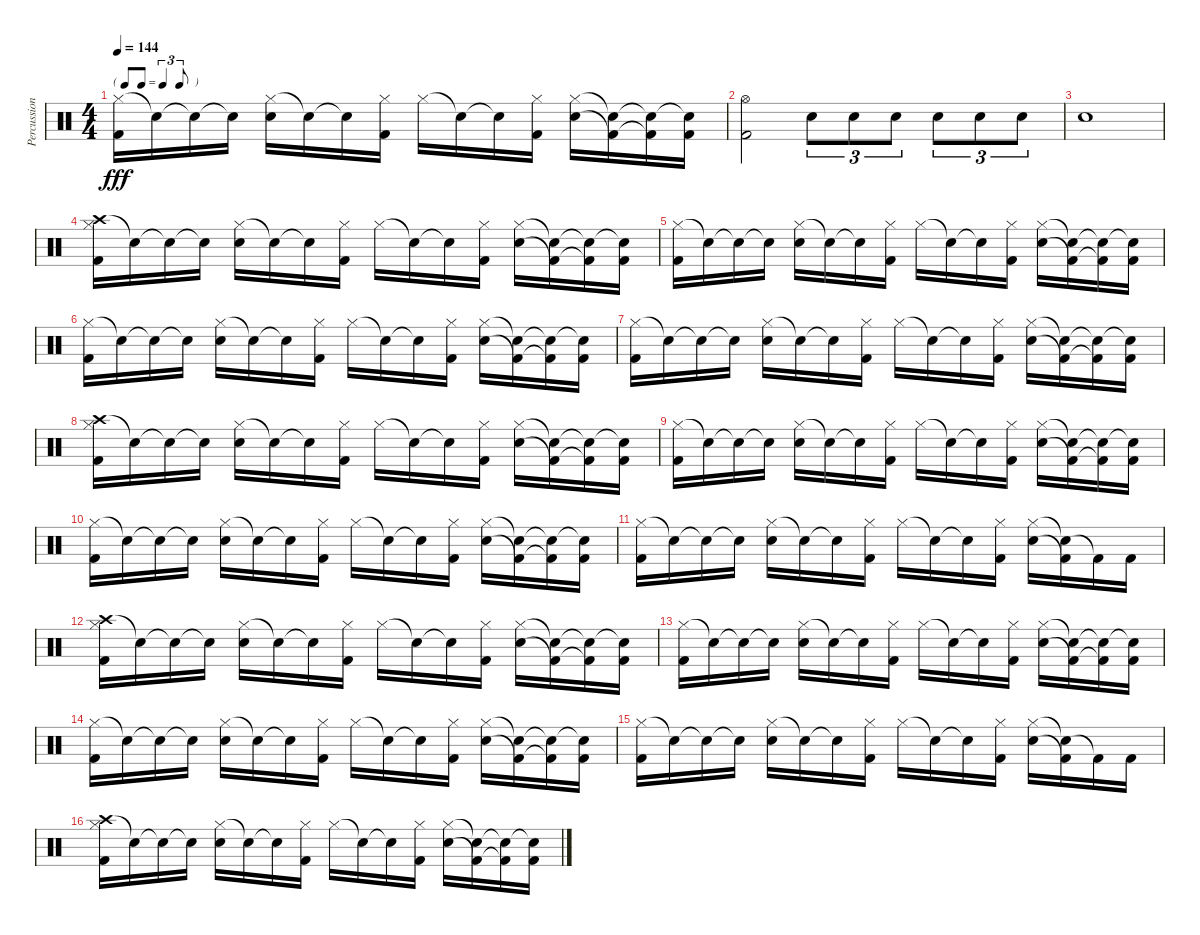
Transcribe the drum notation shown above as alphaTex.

\track ("Percussion" "Percussion") {instrument percussion}
\staff {score}
\articulation defaults
\ts (4 4)
\tf triplet8th
\tempo 144
\clef neutral
\ks c
("Hi-Hat (closed)" "Kick (hit) 2").16{dy fff} "Snare (hit)"{t}.16 "Snare (hit)"{t}.16 "Snare (hit)"{t}.16 ("Hi-Hat (closed)" "Electric Snare (hit)").16 "Snare (hit)"{t}.16 "Snare (hit)"{t}.16 ("Hi-Hat (closed)" "Kick (hit) 2").16 "Hi-Hat (closed)".16 "Snare (hit)"{t}.16 "Snare (hit)"{t}.16 ("Hi-Hat (closed)" "Kick (hit) 2").16 ("Hi-Hat (closed)" "Electric Snare (hit)").16 ("Snare (hit)"{t} "Kick (hit) 2"{t}).16 ("Snare (hit)"{t} "Kick (hit) 2"{t}).16 ("Snare (hit)"{t} "Kick (hit) 2").16 |
("Hi-Hat (open)" "Kick (hit) 2").2 "Electric Snare (hit)".8{tu (3 2)} "Electric Snare (hit)".8{tu (3 2)} "Electric Snare (hit)".8{tu (3 2)} "Electric Snare (hit)".8{tu (3 2)} "Electric Snare (hit)".8{tu (3 2)} "Electric Snare (hit)".8{tu (3 2)} |
"Electric Snare (hit)".1 |
("Crash high (hit)" "Hi-Hat (closed)" "Kick (hit) 2").16 "Snare (hit)"{t}.16 "Snare (hit)"{t}.16 "Snare (hit)"{t}.16 ("Hi-Hat (closed)" "Electric Snare (hit)").16 "Snare (hit)"{t}.16 "Snare (hit)"{t}.16 ("Hi-Hat (closed)" "Kick (hit) 2").16 "Hi-Hat (closed)".16 "Snare (hit)"{t}.16 "Snare (hit)"{t}.16 ("Hi-Hat (closed)" "Kick (hit) 2").16 ("Hi-Hat (closed)" "Electric Snare (hit)").16 ("Snare (hit)"{t} "Kick (hit) 2"{t}).16 ("Snare (hit)"{t} "Kick (hit) 2"{t}).16 ("Snare (hit)"{t} "Kick (hit) 2").16 |
("Hi-Hat (closed)" "Kick (hit) 2").16 "Snare (hit)"{t}.16 "Snare (hit)"{t}.16 "Snare (hit)"{t}.16 ("Hi-Hat (closed)" "Electric Snare (hit)").16 "Snare (hit)"{t}.16 "Snare (hit)"{t}.16 ("Hi-Hat (closed)" "Kick (hit) 2").16 "Hi-Hat (closed)".16 "Snare (hit)"{t}.16 "Snare (hit)"{t}.16 ("Hi-Hat (closed)" "Kick (hit) 2").16 ("Hi-Hat (closed)" "Electric Snare (hit)").16 ("Snare (hit)"{t} "Kick (hit) 2"{t}).16 ("Snare (hit)"{t} "Kick (hit) 2"{t}).16 ("Snare (hit)"{t} "Kick (hit) 2").16 |
("Hi-Hat (closed)" "Kick (hit) 2").16 "Snare (hit)"{t}.16 "Snare (hit)"{t}.16 "Snare (hit)"{t}.16 ("Hi-Hat (closed)" "Electric Snare (hit)").16 "Snare (hit)"{t}.16 "Snare (hit)"{t}.16 ("Hi-Hat (closed)" "Kick (hit) 2").16 "Hi-Hat (closed)".16 "Snare (hit)"{t}.16 "Snare (hit)"{t}.16 ("Hi-Hat (closed)" "Kick (hit) 2").16 ("Hi-Hat (closed)" "Electric Snare (hit)").16 ("Snare (hit)"{t} "Kick (hit) 2"{t}).16 ("Snare (hit)"{t} "Kick (hit) 2"{t}).16 ("Snare (hit)"{t} "Kick (hit) 2").16 |
("Hi-Hat (closed)" "Kick (hit) 2").16 "Snare (hit)"{t}.16 "Snare (hit)"{t}.16 "Snare (hit)"{t}.16 ("Hi-Hat (closed)" "Electric Snare (hit)").16 "Snare (hit)"{t}.16 "Snare (hit)"{t}.16 ("Hi-Hat (closed)" "Kick (hit) 2").16 "Hi-Hat (closed)".16 "Snare (hit)"{t}.16 "Snare (hit)"{t}.16 ("Hi-Hat (closed)" "Kick (hit) 2").16 ("Hi-Hat (closed)" "Electric Snare (hit)").16 ("Snare (hit)"{t} "Kick (hit) 2"{t}).16 ("Snare (hit)"{t} "Kick (hit) 2"{t}).16 ("Snare (hit)"{t} "Kick (hit) 2").16 |
("Crash high (hit)" "Hi-Hat (closed)" "Kick (hit) 2").16 "Snare (hit)"{t}.16 "Snare (hit)"{t}.16 "Snare (hit)"{t}.16 ("Hi-Hat (closed)" "Electric Snare (hit)").16 "Snare (hit)"{t}.16 "Snare (hit)"{t}.16 ("Hi-Hat (closed)" "Kick (hit) 2").16 "Hi-Hat (closed)".16 "Snare (hit)"{t}.16 "Snare (hit)"{t}.16 ("Hi-Hat (closed)" "Kick (hit) 2").16 ("Hi-Hat (closed)" "Electric Snare (hit)").16 ("Snare (hit)"{t} "Kick (hit) 2"{t}).16 ("Snare (hit)"{t} "Kick (hit) 2"{t}).16 ("Snare (hit)"{t} "Kick (hit) 2").16 |
("Hi-Hat (closed)" "Kick (hit) 2").16 "Snare (hit)"{t}.16 "Snare (hit)"{t}.16 "Snare (hit)"{t}.16 ("Hi-Hat (closed)" "Electric Snare (hit)").16 "Snare (hit)"{t}.16 "Snare (hit)"{t}.16 ("Hi-Hat (closed)" "Kick (hit) 2").16 "Hi-Hat (closed)".16 "Snare (hit)"{t}.16 "Snare (hit)"{t}.16 ("Hi-Hat (closed)" "Kick (hit) 2").16 ("Hi-Hat (closed)" "Electric Snare (hit)").16 ("Snare (hit)"{t} "Kick (hit) 2"{t}).16 ("Snare (hit)"{t} "Kick (hit) 2"{t}).16 ("Snare (hit)"{t} "Kick (hit) 2").16 |
("Hi-Hat (closed)" "Kick (hit) 2").16 "Snare (hit)"{t}.16 "Snare (hit)"{t}.16 "Snare (hit)"{t}.16 ("Hi-Hat (closed)" "Electric Snare (hit)").16 "Snare (hit)"{t}.16 "Snare (hit)"{t}.16 ("Hi-Hat (closed)" "Kick (hit) 2").16 "Hi-Hat (closed)".16 "Snare (hit)"{t}.16 "Snare (hit)"{t}.16 ("Hi-Hat (closed)" "Kick (hit) 2").16 ("Hi-Hat (closed)" "Electric Snare (hit)").16 ("Snare (hit)"{t} "Kick (hit) 2"{t}).16 ("Snare (hit)"{t} "Kick (hit) 2"{t}).16 ("Snare (hit)"{t} "Kick (hit) 2").16 |
("Hi-Hat (closed)" "Kick (hit) 2").16 "Snare (hit)"{t}.16 "Snare (hit)"{t}.16 "Snare (hit)"{t}.16 ("Hi-Hat (closed)" "Electric Snare (hit)").16 "Snare (hit)"{t}.16 "Snare (hit)"{t}.16 ("Hi-Hat (closed)" "Kick (hit) 2").16 "Hi-Hat (closed)".16 "Snare (hit)"{t}.16 "Snare (hit)"{t}.16 ("Hi-Hat (closed)" "Kick (hit) 2").16 ("Hi-Hat (closed)" "Electric Snare (hit)").16 ("Snare (hit)"{t} "Kick (hit) 2"{t}).16 "Kick (hit) 2"{t}.16 "Kick (hit) 2".16 |
("Crash high (hit)" "Hi-Hat (closed)" "Kick (hit) 2").16 "Snare (hit)"{t}.16 "Snare (hit)"{t}.16 "Snare (hit)"{t}.16 ("Hi-Hat (closed)" "Electric Snare (hit)").16 "Snare (hit)"{t}.16 "Snare (hit)"{t}.16 ("Hi-Hat (closed)" "Kick (hit) 2").16 "Hi-Hat (closed)".16 "Snare (hit)"{t}.16 "Snare (hit)"{t}.16 ("Hi-Hat (closed)" "Kick (hit) 2").16 ("Hi-Hat (closed)" "Electric Snare (hit)").16 ("Snare (hit)"{t} "Kick (hit) 2"{t}).16 ("Snare (hit)"{t} "Kick (hit) 2"{t}).16 ("Snare (hit)"{t} "Kick (hit) 2").16 |
("Hi-Hat (closed)" "Kick (hit) 2").16 "Snare (hit)"{t}.16 "Snare (hit)"{t}.16 "Snare (hit)"{t}.16 ("Hi-Hat (closed)" "Electric Snare (hit)").16 "Snare (hit)"{t}.16 "Snare (hit)"{t}.16 ("Hi-Hat (closed)" "Kick (hit) 2").16 "Hi-Hat (closed)".16 "Snare (hit)"{t}.16 "Snare (hit)"{t}.16 ("Hi-Hat (closed)" "Kick (hit) 2").16 ("Hi-Hat (closed)" "Electric Snare (hit)").16 ("Snare (hit)"{t} "Kick (hit) 2"{t}).16 ("Snare (hit)"{t} "Kick (hit) 2"{t}).16 ("Snare (hit)"{t} "Kick (hit) 2").16 |
("Hi-Hat (closed)" "Kick (hit) 2").16 "Snare (hit)"{t}.16 "Snare (hit)"{t}.16 "Snare (hit)"{t}.16 ("Hi-Hat (closed)" "Electric Snare (hit)").16 "Snare (hit)"{t}.16 "Snare (hit)"{t}.16 ("Hi-Hat (closed)" "Kick (hit) 2").16 "Hi-Hat (closed)".16 "Snare (hit)"{t}.16 "Snare (hit)"{t}.16 ("Hi-Hat (closed)" "Kick (hit) 2").16 ("Hi-Hat (closed)" "Electric Snare (hit)").16 ("Snare (hit)"{t} "Kick (hit) 2"{t}).16 ("Snare (hit)"{t} "Kick (hit) 2"{t}).16 ("Snare (hit)"{t} "Kick (hit) 2").16 |
("Hi-Hat (closed)" "Kick (hit) 2").16 "Snare (hit)"{t}.16 "Snare (hit)"{t}.16 "Snare (hit)"{t}.16 ("Hi-Hat (closed)" "Electric Snare (hit)").16 "Snare (hit)"{t}.16 "Snare (hit)"{t}.16 ("Hi-Hat (closed)" "Kick (hit) 2").16 "Hi-Hat (closed)".16 "Snare (hit)"{t}.16 "Snare (hit)"{t}.16 ("Hi-Hat (closed)" "Kick (hit) 2").16 ("Hi-Hat (closed)" "Electric Snare (hit)").16 ("Snare (hit)"{t} "Kick (hit) 2"{t}).16 "Kick (hit) 2"{t}.16 "Kick (hit) 2".16 |
("Crash high (hit)" "Hi-Hat (closed)" "Kick (hit) 2").16 "Snare (hit)"{t}.16 "Snare (hit)"{t}.16 "Snare (hit)"{t}.16 ("Hi-Hat (closed)" "Electric Snare (hit)").16 "Snare (hit)"{t}.16 "Snare (hit)"{t}.16 ("Hi-Hat (closed)" "Kick (hit) 2").16 "Hi-Hat (closed)".16 "Snare (hit)"{t}.16 "Snare (hit)"{t}.16 ("Hi-Hat (closed)" "Kick (hit) 2").16 ("Hi-Hat (closed)" "Electric Snare (hit)").16 ("Snare (hit)"{t} "Kick (hit) 2"{t}).16 ("Snare (hit)"{t} "Kick (hit) 2"{t}).16 ("Snare (hit)"{t} "Kick (hit) 2").16
